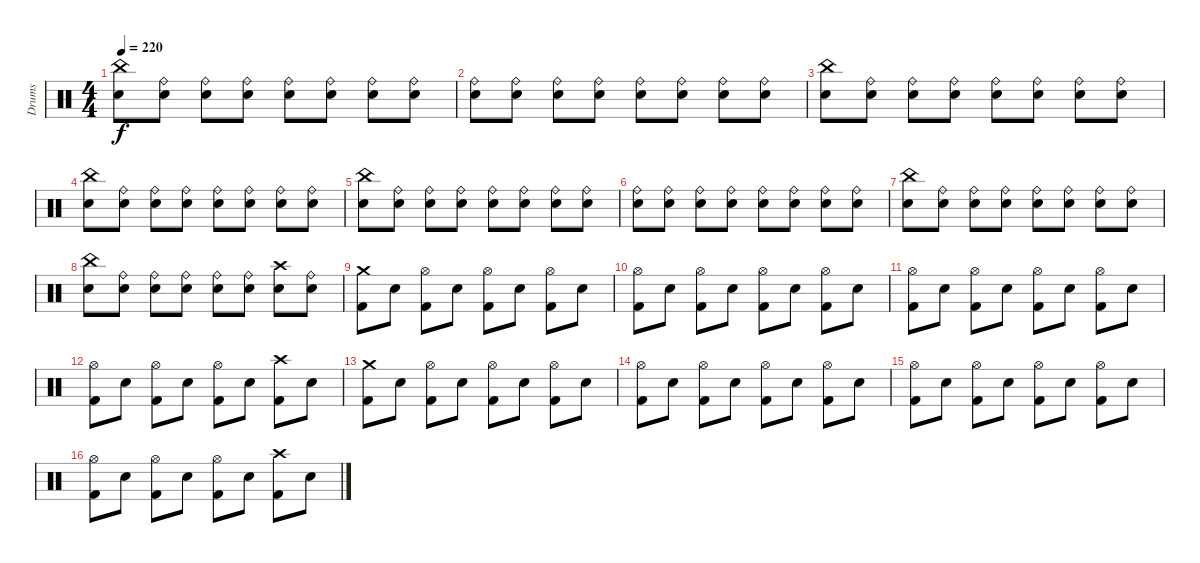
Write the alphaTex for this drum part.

\track ("Drums" "Drums") {instrument percussion}
\staff {score}
\articulation defaults
\ts (4 4)
\tempo 220
\clef neutral
\ks c
("Electric Snare (hit)" "China (hit)").8{dy f} ("Electric Snare (hit)" "Ride (bell)").8 ("Electric Snare (hit)" "Ride (bell)").8 ("Electric Snare (hit)" "Ride (bell)").8 ("Electric Snare (hit)" "Ride (bell)").8 ("Electric Snare (hit)" "Ride (bell)").8 ("Electric Snare (hit)" "Ride (bell)").8 ("Electric Snare (hit)" "Ride (bell)").8 |
("Electric Snare (hit)" "Ride (bell)").8 ("Electric Snare (hit)" "Ride (bell)").8 ("Electric Snare (hit)" "Ride (bell)").8 ("Electric Snare (hit)" "Ride (bell)").8 ("Electric Snare (hit)" "Ride (bell)").8 ("Electric Snare (hit)" "Ride (bell)").8 ("Electric Snare (hit)" "Ride (bell)").8 ("Electric Snare (hit)" "Ride (bell)").8 |
("Electric Snare (hit)" "China (hit)").8 ("Electric Snare (hit)" "Ride (bell)").8 ("Electric Snare (hit)" "Ride (bell)").8 ("Electric Snare (hit)" "Ride (bell)").8 ("Electric Snare (hit)" "Ride (bell)").8 ("Electric Snare (hit)" "Ride (bell)").8 ("Electric Snare (hit)" "Ride (bell)").8 ("Electric Snare (hit)" "Ride (bell)").8 |
("Electric Snare (hit)" "China (hit)").8 ("Electric Snare (hit)" "Ride (bell)").8 ("Electric Snare (hit)" "Ride (bell)").8 ("Electric Snare (hit)" "Ride (bell)").8 ("Electric Snare (hit)" "Ride (bell)").8 ("Electric Snare (hit)" "Ride (bell)").8 ("Electric Snare (hit)" "Ride (bell)").8 ("Electric Snare (hit)" "Ride (bell)").8 |
("Electric Snare (hit)" "China (hit)").8 ("Electric Snare (hit)" "Ride (bell)").8 ("Electric Snare (hit)" "Ride (bell)").8 ("Electric Snare (hit)" "Ride (bell)").8 ("Electric Snare (hit)" "Ride (bell)").8 ("Electric Snare (hit)" "Ride (bell)").8 ("Electric Snare (hit)" "Ride (bell)").8 ("Electric Snare (hit)" "Ride (bell)").8 |
("Electric Snare (hit)" "Ride (bell)").8 ("Electric Snare (hit)" "Ride (bell)").8 ("Electric Snare (hit)" "Ride (bell)").8 ("Electric Snare (hit)" "Ride (bell)").8 ("Electric Snare (hit)" "Ride (bell)").8 ("Electric Snare (hit)" "Ride (bell)").8 ("Electric Snare (hit)" "Ride (bell)").8 ("Electric Snare (hit)" "Ride (bell)").8 |
("Electric Snare (hit)" "China (hit)").8 ("Electric Snare (hit)" "Ride (bell)").8 ("Electric Snare (hit)" "Ride (bell)").8 ("Electric Snare (hit)" "Ride (bell)").8 ("Electric Snare (hit)" "Ride (bell)").8 ("Electric Snare (hit)" "Ride (bell)").8 ("Electric Snare (hit)" "Ride (bell)").8 ("Electric Snare (hit)" "Ride (bell)").8 |
("Electric Snare (hit)" "China (hit)").8 ("Electric Snare (hit)" "Ride (bell)").8 ("Electric Snare (hit)" "Ride (bell)").8 ("Electric Snare (hit)" "Ride (bell)").8 ("Electric Snare (hit)" "Ride (bell)").8 ("Electric Snare (hit)" "Ride (bell)").8 ("Electric Snare (hit)" "Crash high (hit)").8 ("Electric Snare (hit)" "Ride (bell)").8 |
("Crash medium (hit)" "Kick (hit) 2").8 "Electric Snare (hit)".8 ("Hi-Hat (open)" "Kick (hit) 2").8 "Electric Snare (hit)".8 ("Hi-Hat (open)" "Kick (hit) 2").8 "Electric Snare (hit)".8 ("Hi-Hat (open)" "Kick (hit) 2").8 "Electric Snare (hit)".8 |
("Kick (hit) 2" "Hi-Hat (open)").8 "Electric Snare (hit)".8 ("Kick (hit) 2" "Hi-Hat (open)").8 "Electric Snare (hit)".8 ("Kick (hit) 2" "Hi-Hat (open)").8 "Electric Snare (hit)".8 ("Kick (hit) 2" "Hi-Hat (open)").8 "Electric Snare (hit)".8 |
("Kick (hit) 2" "Hi-Hat (open)").8 "Electric Snare (hit)".8 ("Kick (hit) 2" "Hi-Hat (open)").8 "Electric Snare (hit)".8 ("Kick (hit) 2" "Hi-Hat (open)").8 "Electric Snare (hit)".8 ("Kick (hit) 2" "Hi-Hat (open)").8 "Electric Snare (hit)".8 |
("Kick (hit) 2" "Hi-Hat (open)").8 "Electric Snare (hit)".8 ("Kick (hit) 2" "Hi-Hat (open)").8 "Electric Snare (hit)".8 ("Kick (hit) 2" "Hi-Hat (open)").8 "Electric Snare (hit)".8 ("Kick (hit) 2" "Crash high (hit)").8 "Electric Snare (hit)".8 |
("Kick (hit) 2" "Crash medium (hit)").8 "Electric Snare (hit)".8 ("Kick (hit) 2" "Hi-Hat (open)").8 "Electric Snare (hit)".8 ("Kick (hit) 2" "Hi-Hat (open)").8 "Electric Snare (hit)".8 ("Kick (hit) 2" "Hi-Hat (open)").8 "Electric Snare (hit)".8 |
("Kick (hit) 2" "Hi-Hat (open)").8 "Electric Snare (hit)".8 ("Kick (hit) 2" "Hi-Hat (open)").8 "Electric Snare (hit)".8 ("Kick (hit) 2" "Hi-Hat (open)").8 "Electric Snare (hit)".8 ("Kick (hit) 2" "Hi-Hat (open)").8 "Electric Snare (hit)".8 |
("Kick (hit) 2" "Hi-Hat (open)").8 "Electric Snare (hit)".8 ("Kick (hit) 2" "Hi-Hat (open)").8 "Electric Snare (hit)".8 ("Kick (hit) 2" "Hi-Hat (open)").8 "Electric Snare (hit)".8 ("Kick (hit) 2" "Hi-Hat (open)").8 "Electric Snare (hit)".8 |
("Kick (hit) 2" "Hi-Hat (open)").8 "Electric Snare (hit)".8 ("Kick (hit) 2" "Hi-Hat (open)").8 "Electric Snare (hit)".8 ("Kick (hit) 2" "Hi-Hat (open)").8 "Electric Snare (hit)".8 ("Kick (hit) 2" "Crash high (hit)").8 "Electric Snare (hit)".8
